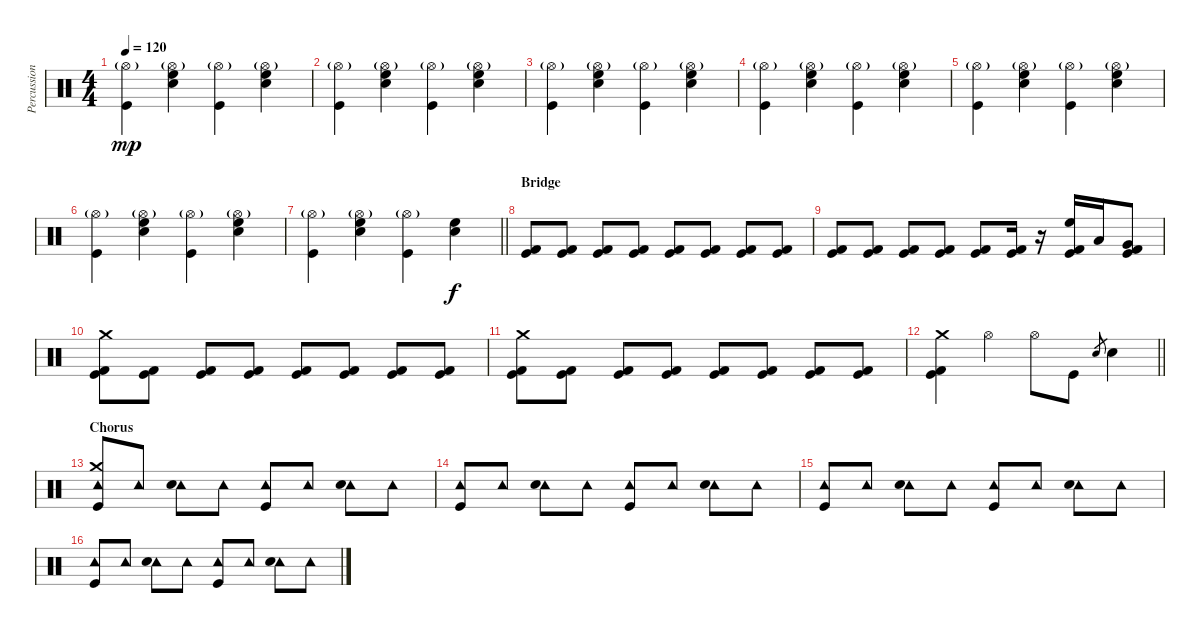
\track ("Percussion" "Percussion") {instrument percussion}
\staff {score}
\articulation defaults
\ts (4 4)
\tempo 120
\clef neutral
\ks c
("Hi-Hat (open)"{g} "Kick (hit)").4{dy mp} ("Hi-Hat (open)"{g} "High Floor Tom (hit)" "Electric Snare (hit)").4 ("Hi-Hat (open)"{g} "Kick (hit)").4 ("Hi-Hat (open)"{g} "High Floor Tom (hit)" "Electric Snare (hit)").4 |
("Hi-Hat (open)"{g} "Kick (hit)").4 ("Hi-Hat (open)"{g} "High Floor Tom (hit)" "Electric Snare (hit)").4 ("Hi-Hat (open)"{g} "Kick (hit)").4 ("Hi-Hat (open)"{g} "High Floor Tom (hit)" "Electric Snare (hit)").4 |
("Hi-Hat (open)"{g} "Kick (hit)").4 ("Hi-Hat (open)"{g} "High Floor Tom (hit)" "Electric Snare (hit)").4 ("Hi-Hat (open)"{g} "Kick (hit)").4 ("Hi-Hat (open)"{g} "High Floor Tom (hit)" "Electric Snare (hit)").4 |
("Hi-Hat (open)"{g} "Kick (hit)").4 ("Hi-Hat (open)"{g} "High Floor Tom (hit)" "Electric Snare (hit)").4 ("Hi-Hat (open)"{g} "Kick (hit)").4 ("Hi-Hat (open)"{g} "High Floor Tom (hit)" "Electric Snare (hit)").4 |
("Hi-Hat (open)"{g} "Kick (hit)").4 ("Hi-Hat (open)"{g} "High Floor Tom (hit)" "Electric Snare (hit)").4 ("Hi-Hat (open)"{g} "Kick (hit)").4 ("Hi-Hat (open)"{g} "High Floor Tom (hit)" "Electric Snare (hit)").4 |
("Hi-Hat (open)"{g} "Kick (hit)").4 ("Hi-Hat (open)"{g} "High Floor Tom (hit)" "Electric Snare (hit)").4 ("Hi-Hat (open)"{g} "Kick (hit)").4 ("Hi-Hat (open)"{g} "High Floor Tom (hit)" "Electric Snare (hit)").4 |
\barLineRight lightlight
("Hi-Hat (open)"{g} "Kick (hit)").4 ("Hi-Hat (open)"{g} "High Floor Tom (hit)" "Electric Snare (hit)").4 ("Hi-Hat (open)"{g} "Kick (hit)").4 ("High Floor Tom (hit)" "Electric Snare (hit)").4{dy f} |
\section ("" "Bridge")
("Kick (hit) 2" "Kick (hit)").8 ("Kick (hit) 2" "Kick (hit)").8 ("Kick (hit) 2" "Kick (hit)").8 ("Kick (hit) 2" "Kick (hit)").8 ("Kick (hit) 2" "Kick (hit)").8 ("Kick (hit) 2" "Kick (hit)").8 ("Kick (hit) 2" "Kick (hit)").8 ("Kick (hit) 2" "Kick (hit)").8 |
("Kick (hit) 2" "Kick (hit)").8 ("Kick (hit) 2" "Kick (hit)").8 ("Kick (hit) 2" "Kick (hit)").8 ("Kick (hit) 2" "Kick (hit)").8 ("Kick (hit) 2" "Kick (hit)").8 ("Kick (hit) 2" "Kick (hit)").16 r.16 ("High Floor Tom (hit)" "Kick (hit) 2" "Kick (hit)").16 "Low Tom (hit)".16 ("Very Low Tom (hit)" "Kick (hit) 2" "Kick (hit)").8 |
("Crash medium (hit)" "Kick (hit) 2" "Kick (hit)").8 ("Kick (hit) 2" "Kick (hit)").8 ("Kick (hit) 2" "Kick (hit)").8 ("Kick (hit) 2" "Kick (hit)").8 ("Kick (hit) 2" "Kick (hit)").8 ("Kick (hit) 2" "Kick (hit)").8 ("Kick (hit) 2" "Kick (hit)").8 ("Kick (hit) 2" "Kick (hit)").8 |
("Crash medium (hit)" "Kick (hit) 2" "Kick (hit)").8 ("Kick (hit) 2" "Kick (hit)").8 ("Kick (hit) 2" "Kick (hit)").8 ("Kick (hit) 2" "Kick (hit)").8 ("Kick (hit) 2" "Kick (hit)").8 ("Kick (hit) 2" "Kick (hit)").8 ("Kick (hit) 2" "Kick (hit)").8 ("Kick (hit) 2" "Kick (hit)").8 |
\barLineRight lightlight
("Crash medium (hit)" "Kick (hit) 2" "Kick (hit)").4 "Hi-Hat (open)".4 "Hi-Hat (open)".8 "Kick (hit)".8 "Electric Snare (hit)".8{gr} "Electric Snare (hit)".4 |
\section ("" "Chorus")
("Crash medium (hit)" "Tambourine (hit)" "Kick (hit)").8 "Tambourine (hit)".8 ("Tambourine (hit)" "Electric Snare (hit)").8 "Tambourine (hit)".8 ("Tambourine (hit)" "Kick (hit)").8 "Tambourine (hit)".8 ("Tambourine (hit)" "Electric Snare (hit)").8 "Tambourine (hit)".8 |
("Tambourine (hit)" "Kick (hit)").8 "Tambourine (hit)".8 ("Tambourine (hit)" "Electric Snare (hit)").8 "Tambourine (hit)".8 ("Tambourine (hit)" "Kick (hit)").8 "Tambourine (hit)".8 ("Tambourine (hit)" "Electric Snare (hit)").8 "Tambourine (hit)".8 |
("Tambourine (hit)" "Kick (hit)").8 "Tambourine (hit)".8 ("Tambourine (hit)" "Electric Snare (hit)").8 "Tambourine (hit)".8 ("Tambourine (hit)" "Kick (hit)").8 "Tambourine (hit)".8 ("Tambourine (hit)" "Electric Snare (hit)").8 "Tambourine (hit)".8 |
("Tambourine (hit)" "Kick (hit)").8 "Tambourine (hit)".8 ("Tambourine (hit)" "Electric Snare (hit)").8 "Tambourine (hit)".8 ("Tambourine (hit)" "Kick (hit)").8 "Tambourine (hit)".8 ("Tambourine (hit)" "Electric Snare (hit)").8 "Tambourine (hit)".8
